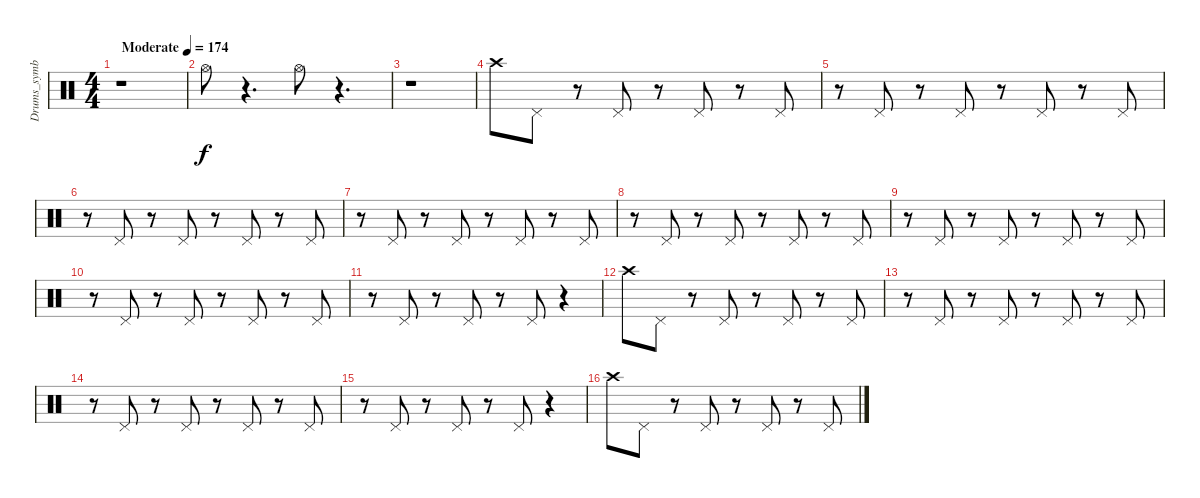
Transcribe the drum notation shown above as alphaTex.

\track ("Drums_symbal" "Drums_symb") {instrument percussion}
\staff {score}
\articulation defaults
\ts (4 4)
\tempo (174 "Moderate")
\clef neutral
\ks c
r.1{dy f} |
"Hi-Hat (open)".8 r.4{d} "Hi-Hat (open)".8 r.4{d} |
r.1 |
"Crash high (hit)".8 "Pedal Hi-Hat (hit)".8 r.8 "Pedal Hi-Hat (hit)".8 r.8 "Pedal Hi-Hat (hit)".8 r.8 "Pedal Hi-Hat (hit)".8 |
r.8 "Pedal Hi-Hat (hit)".8 r.8 "Pedal Hi-Hat (hit)".8 r.8 "Pedal Hi-Hat (hit)".8 r.8 "Pedal Hi-Hat (hit)".8 |
r.8 "Pedal Hi-Hat (hit)".8 r.8 "Pedal Hi-Hat (hit)".8 r.8 "Pedal Hi-Hat (hit)".8 r.8 "Pedal Hi-Hat (hit)".8 |
r.8 "Pedal Hi-Hat (hit)".8 r.8 "Pedal Hi-Hat (hit)".8 r.8 "Pedal Hi-Hat (hit)".8 r.8 "Pedal Hi-Hat (hit)".8 |
r.8 "Pedal Hi-Hat (hit)".8 r.8 "Pedal Hi-Hat (hit)".8 r.8 "Pedal Hi-Hat (hit)".8 r.8 "Pedal Hi-Hat (hit)".8 |
r.8 "Pedal Hi-Hat (hit)".8 r.8 "Pedal Hi-Hat (hit)".8 r.8 "Pedal Hi-Hat (hit)".8 r.8 "Pedal Hi-Hat (hit)".8 |
r.8 "Pedal Hi-Hat (hit)".8 r.8 "Pedal Hi-Hat (hit)".8 r.8 "Pedal Hi-Hat (hit)".8 r.8 "Pedal Hi-Hat (hit)".8 |
r.8 "Pedal Hi-Hat (hit)".8 r.8 "Pedal Hi-Hat (hit)".8 r.8 "Pedal Hi-Hat (hit)".8 r.4 |
"Crash high (hit)".8 "Pedal Hi-Hat (hit)".8 r.8 "Pedal Hi-Hat (hit)".8 r.8 "Pedal Hi-Hat (hit)".8 r.8 "Pedal Hi-Hat (hit)".8 |
r.8 "Pedal Hi-Hat (hit)".8 r.8 "Pedal Hi-Hat (hit)".8 r.8 "Pedal Hi-Hat (hit)".8 r.8 "Pedal Hi-Hat (hit)".8 |
r.8 "Pedal Hi-Hat (hit)".8 r.8 "Pedal Hi-Hat (hit)".8 r.8 "Pedal Hi-Hat (hit)".8 r.8 "Pedal Hi-Hat (hit)".8 |
r.8 "Pedal Hi-Hat (hit)".8 r.8 "Pedal Hi-Hat (hit)".8 r.8 "Pedal Hi-Hat (hit)".8 r.4 |
"Crash high (hit)".8 "Pedal Hi-Hat (hit)".8 r.8 "Pedal Hi-Hat (hit)".8 r.8 "Pedal Hi-Hat (hit)".8 r.8 "Pedal Hi-Hat (hit)".8
